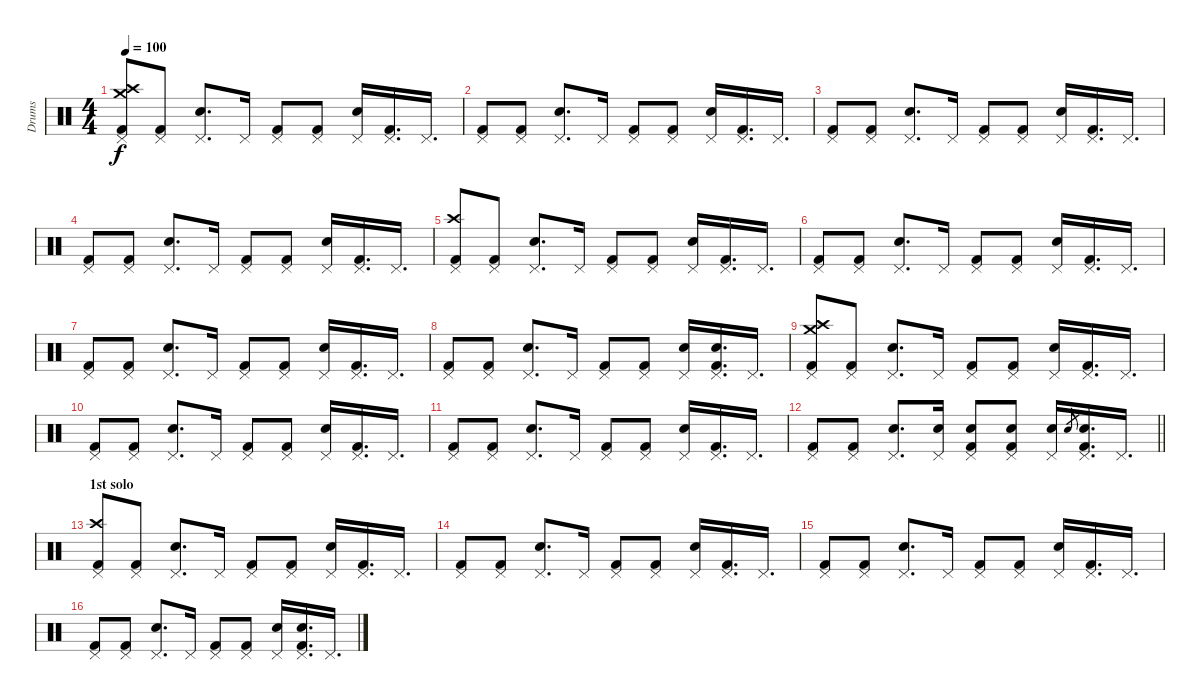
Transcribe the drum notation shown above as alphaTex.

\track ("Drums" "Drums") {instrument percussion}
\staff
\articulation defaults
\ts (4 4)
\tempo 100
\clef neutral
\ks c
("Pedal Hi-Hat (hit)" "Crash high (hit)" "Crash medium (hit)" "Kick (hit) 2").8{dy f} ("Pedal Hi-Hat (hit)" "Kick (hit) 2").8 ("Electric Snare (hit)" "Pedal Hi-Hat (hit)").8{d} "Pedal Hi-Hat (hit)".16 ("Pedal Hi-Hat (hit)" "Kick (hit) 2").8 ("Pedal Hi-Hat (hit)" "Kick (hit) 2").8 ("Electric Snare (hit)" "Pedal Hi-Hat (hit)").16 ("Pedal Hi-Hat (hit)" "Kick (hit) 2").16{d} "Pedal Hi-Hat (hit)".16{d} |
("Pedal Hi-Hat (hit)" "Kick (hit) 2").8 ("Pedal Hi-Hat (hit)" "Kick (hit) 2").8 ("Electric Snare (hit)" "Pedal Hi-Hat (hit)").8{d} "Pedal Hi-Hat (hit)".16 ("Pedal Hi-Hat (hit)" "Kick (hit) 2").8 ("Pedal Hi-Hat (hit)" "Kick (hit) 2").8 ("Electric Snare (hit)" "Pedal Hi-Hat (hit)").16 ("Pedal Hi-Hat (hit)" "Kick (hit) 2").16{d} "Pedal Hi-Hat (hit)".16{d} |
("Pedal Hi-Hat (hit)" "Kick (hit) 2").8 ("Pedal Hi-Hat (hit)" "Kick (hit) 2").8 ("Electric Snare (hit)" "Pedal Hi-Hat (hit)").8{d} "Pedal Hi-Hat (hit)".16 ("Pedal Hi-Hat (hit)" "Kick (hit) 2").8 ("Pedal Hi-Hat (hit)" "Kick (hit) 2").8 ("Electric Snare (hit)" "Pedal Hi-Hat (hit)").16 ("Pedal Hi-Hat (hit)" "Kick (hit) 2").16{d} "Pedal Hi-Hat (hit)".16{d} |
("Pedal Hi-Hat (hit)" "Kick (hit) 2").8 ("Pedal Hi-Hat (hit)" "Kick (hit) 2").8 ("Electric Snare (hit)" "Pedal Hi-Hat (hit)").8{d} "Pedal Hi-Hat (hit)".16 ("Pedal Hi-Hat (hit)" "Kick (hit) 2").8 ("Pedal Hi-Hat (hit)" "Kick (hit) 2").8 ("Electric Snare (hit)" "Pedal Hi-Hat (hit)").16 ("Pedal Hi-Hat (hit)" "Kick (hit) 2").16{d} "Pedal Hi-Hat (hit)".16{d} |
("Pedal Hi-Hat (hit)" "Crash high (hit)" "Kick (hit) 2").8 ("Pedal Hi-Hat (hit)" "Kick (hit) 2").8 ("Electric Snare (hit)" "Pedal Hi-Hat (hit)").8{d} "Pedal Hi-Hat (hit)".16 ("Pedal Hi-Hat (hit)" "Kick (hit) 2").8 ("Pedal Hi-Hat (hit)" "Kick (hit) 2").8 ("Electric Snare (hit)" "Pedal Hi-Hat (hit)").16 ("Pedal Hi-Hat (hit)" "Kick (hit) 2").16{d} "Pedal Hi-Hat (hit)".16{d} |
("Pedal Hi-Hat (hit)" "Kick (hit) 2").8 ("Pedal Hi-Hat (hit)" "Kick (hit) 2").8 ("Electric Snare (hit)" "Pedal Hi-Hat (hit)").8{d} "Pedal Hi-Hat (hit)".16 ("Pedal Hi-Hat (hit)" "Kick (hit) 2").8 ("Pedal Hi-Hat (hit)" "Kick (hit) 2").8 ("Electric Snare (hit)" "Pedal Hi-Hat (hit)").16 ("Pedal Hi-Hat (hit)" "Kick (hit) 2").16{d} "Pedal Hi-Hat (hit)".16{d} |
("Pedal Hi-Hat (hit)" "Kick (hit) 2").8 ("Pedal Hi-Hat (hit)" "Kick (hit) 2").8 ("Electric Snare (hit)" "Pedal Hi-Hat (hit)").8{d} "Pedal Hi-Hat (hit)".16 ("Pedal Hi-Hat (hit)" "Kick (hit) 2").8 ("Pedal Hi-Hat (hit)" "Kick (hit) 2").8 ("Electric Snare (hit)" "Pedal Hi-Hat (hit)").16 ("Pedal Hi-Hat (hit)" "Kick (hit) 2").16{d} "Pedal Hi-Hat (hit)".16{d} |
("Pedal Hi-Hat (hit)" "Kick (hit) 2").8 ("Pedal Hi-Hat (hit)" "Kick (hit) 2").8 ("Electric Snare (hit)" "Pedal Hi-Hat (hit)").8{d} "Pedal Hi-Hat (hit)".16 ("Pedal Hi-Hat (hit)" "Kick (hit) 2").8 ("Pedal Hi-Hat (hit)" "Kick (hit) 2").8 ("Electric Snare (hit)" "Pedal Hi-Hat (hit)").16 ("Pedal Hi-Hat (hit)" "Electric Snare (hit)" "Kick (hit) 2").16{d} "Pedal Hi-Hat (hit)".16{d} |
("Pedal Hi-Hat (hit)" "Crash high (hit)" "Crash medium (hit)" "Kick (hit) 2").8 ("Pedal Hi-Hat (hit)" "Kick (hit) 2").8 ("Electric Snare (hit)" "Pedal Hi-Hat (hit)").8{d} "Pedal Hi-Hat (hit)".16 ("Pedal Hi-Hat (hit)" "Kick (hit) 2").8 ("Pedal Hi-Hat (hit)" "Kick (hit) 2").8 ("Electric Snare (hit)" "Pedal Hi-Hat (hit)").16 ("Pedal Hi-Hat (hit)" "Kick (hit) 2").16{d} "Pedal Hi-Hat (hit)".16{d} |
("Pedal Hi-Hat (hit)" "Kick (hit) 2").8 ("Pedal Hi-Hat (hit)" "Kick (hit) 2").8 ("Electric Snare (hit)" "Pedal Hi-Hat (hit)").8{d} "Pedal Hi-Hat (hit)".16 ("Pedal Hi-Hat (hit)" "Kick (hit) 2").8 ("Pedal Hi-Hat (hit)" "Kick (hit) 2").8 ("Electric Snare (hit)" "Pedal Hi-Hat (hit)").16 ("Pedal Hi-Hat (hit)" "Kick (hit) 2").16{d} "Pedal Hi-Hat (hit)".16{d} |
("Pedal Hi-Hat (hit)" "Kick (hit) 2").8 ("Pedal Hi-Hat (hit)" "Kick (hit) 2").8 ("Electric Snare (hit)" "Pedal Hi-Hat (hit)").8{d} "Pedal Hi-Hat (hit)".16 ("Pedal Hi-Hat (hit)" "Kick (hit) 2").8 ("Pedal Hi-Hat (hit)" "Kick (hit) 2").8 ("Electric Snare (hit)" "Pedal Hi-Hat (hit)").16 ("Pedal Hi-Hat (hit)" "Kick (hit) 2").16{d} "Pedal Hi-Hat (hit)".16{d} |
\barLineRight lightlight
("Pedal Hi-Hat (hit)" "Kick (hit) 2").8 ("Pedal Hi-Hat (hit)" "Kick (hit) 2").8 ("Electric Snare (hit)" "Pedal Hi-Hat (hit)").8{d} ("Pedal Hi-Hat (hit)" "Electric Snare (hit)").16 ("Pedal Hi-Hat (hit)" "Electric Snare (hit)" "Kick (hit) 2").8 ("Pedal Hi-Hat (hit)" "Electric Snare (hit)" "Kick (hit) 2").8 ("Pedal Hi-Hat (hit)" "Electric Snare (hit)").16 "Electric Snare (hit)".8{gr} ("Pedal Hi-Hat (hit)" "Electric Snare (hit)" "Kick (hit) 2").16{d} "Pedal Hi-Hat (hit)".16{d} |
\section ("" "1st solo")
("Pedal Hi-Hat (hit)" "Crash high (hit)" "Kick (hit) 2").8 ("Pedal Hi-Hat (hit)" "Kick (hit) 2").8 ("Electric Snare (hit)" "Pedal Hi-Hat (hit)").8{d} "Pedal Hi-Hat (hit)".16 ("Pedal Hi-Hat (hit)" "Kick (hit) 2").8 ("Pedal Hi-Hat (hit)" "Kick (hit) 2").8 ("Electric Snare (hit)" "Pedal Hi-Hat (hit)").16 ("Pedal Hi-Hat (hit)" "Kick (hit) 2").16{d} "Pedal Hi-Hat (hit)".16{d} |
("Pedal Hi-Hat (hit)" "Kick (hit) 2").8 ("Pedal Hi-Hat (hit)" "Kick (hit) 2").8 ("Electric Snare (hit)" "Pedal Hi-Hat (hit)").8{d} "Pedal Hi-Hat (hit)".16 ("Pedal Hi-Hat (hit)" "Kick (hit) 2").8 ("Pedal Hi-Hat (hit)" "Kick (hit) 2").8 ("Electric Snare (hit)" "Pedal Hi-Hat (hit)").16 ("Pedal Hi-Hat (hit)" "Kick (hit) 2").16{d} "Pedal Hi-Hat (hit)".16{d} |
("Pedal Hi-Hat (hit)" "Kick (hit) 2").8 ("Pedal Hi-Hat (hit)" "Kick (hit) 2").8 ("Electric Snare (hit)" "Pedal Hi-Hat (hit)").8{d} "Pedal Hi-Hat (hit)".16 ("Pedal Hi-Hat (hit)" "Kick (hit) 2").8 ("Pedal Hi-Hat (hit)" "Kick (hit) 2").8 ("Electric Snare (hit)" "Pedal Hi-Hat (hit)").16 ("Pedal Hi-Hat (hit)" "Kick (hit) 2").16{d} "Pedal Hi-Hat (hit)".16{d} |
("Pedal Hi-Hat (hit)" "Kick (hit) 2").8 ("Pedal Hi-Hat (hit)" "Kick (hit) 2").8 ("Electric Snare (hit)" "Pedal Hi-Hat (hit)").8{d} "Pedal Hi-Hat (hit)".16 ("Pedal Hi-Hat (hit)" "Kick (hit) 2").8 ("Pedal Hi-Hat (hit)" "Kick (hit) 2").8 ("Electric Snare (hit)" "Pedal Hi-Hat (hit)").16 ("Pedal Hi-Hat (hit)" "Electric Snare (hit)" "Kick (hit) 2").16{d} "Pedal Hi-Hat (hit)".16{d}
